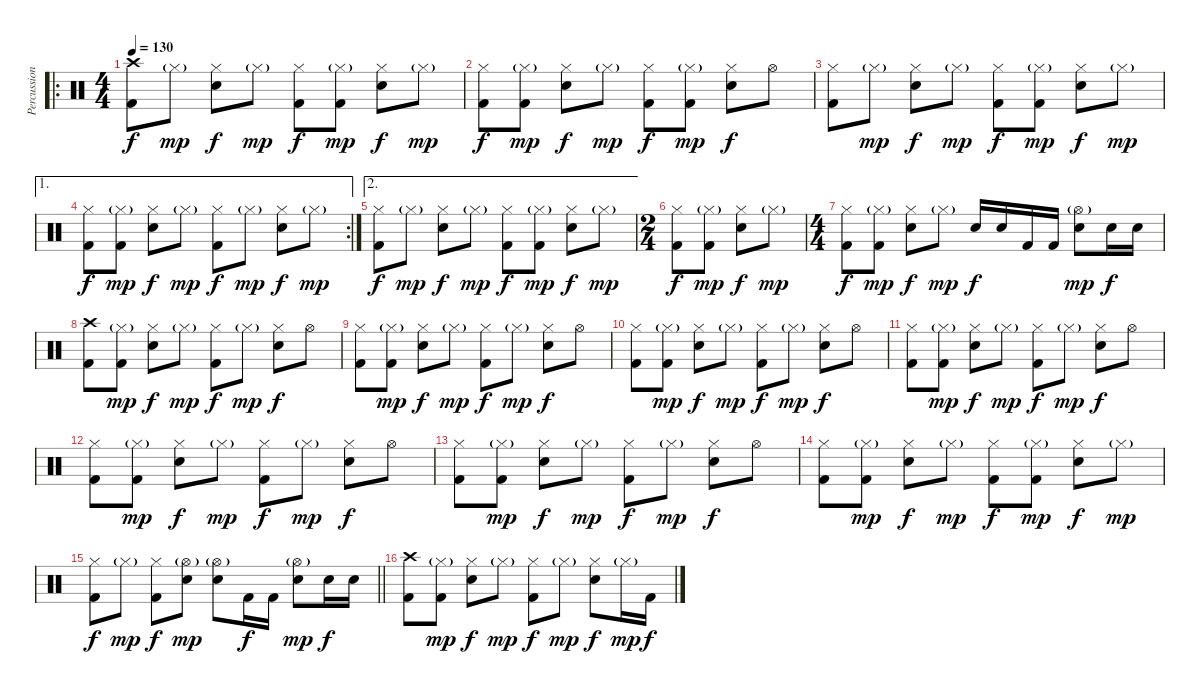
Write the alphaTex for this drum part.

\track ("Percussion" "Percussion") {instrument percussion}
\staff {score}
\articulation defaults
\ro
\ts (4 4)
\tempo 130
\clef neutral
\ks c
("Crash high (hit)" "Kick (hit) 2").8{dy f} "Hi-Hat (closed)"{g}.8{dy mp} ("Hi-Hat (closed)" "Electric Snare (hit)").8{dy f} "Hi-Hat (closed)"{g}.8{dy mp} ("Hi-Hat (closed)" "Kick (hit) 2").8{dy f} ("Hi-Hat (closed)"{g} "Kick (hit) 2").8{dy mp} ("Hi-Hat (closed)" "Electric Snare (hit)").8{dy f} "Hi-Hat (closed)"{g}.8{dy mp} |
("Hi-Hat (closed)" "Kick (hit) 2").8{dy f} ("Hi-Hat (closed)"{g} "Kick (hit) 2").8{dy mp} ("Hi-Hat (closed)" "Electric Snare (hit)").8{dy f} "Hi-Hat (closed)"{g}.8{dy mp} ("Hi-Hat (closed)" "Kick (hit) 2").8{dy f} ("Hi-Hat (closed)"{g} "Kick (hit) 2").8{dy mp} ("Hi-Hat (closed)" "Electric Snare (hit)").8{dy f} "Hi-Hat (open)".8 |
("Hi-Hat (closed)" "Kick (hit) 2").8 "Hi-Hat (closed)"{g}.8{dy mp} ("Hi-Hat (closed)" "Electric Snare (hit)").8{dy f} "Hi-Hat (closed)"{g}.8{dy mp} ("Hi-Hat (closed)" "Kick (hit) 2").8{dy f} ("Hi-Hat (closed)"{g} "Kick (hit) 2").8{dy mp} ("Hi-Hat (closed)" "Electric Snare (hit)").8{dy f} "Hi-Hat (closed)"{g}.8{dy mp} |
\ae 1
\rc 2
("Hi-Hat (closed)" "Kick (hit) 2").8{dy f} ("Hi-Hat (closed)"{g} "Kick (hit) 2").8{dy mp} ("Hi-Hat (closed)" "Electric Snare (hit)").8{dy f} "Hi-Hat (closed)"{g}.8{dy mp} ("Hi-Hat (closed)" "Kick (hit) 2").8{dy f} "Hi-Hat (closed)"{g}.8{dy mp} ("Hi-Hat (closed)" "Electric Snare (hit)").8{dy f} "Hi-Hat (closed)"{g}.8{dy mp} |
\ae 2
("Hi-Hat (closed)" "Kick (hit) 2").8{dy f} "Hi-Hat (closed)"{g}.8{dy mp} ("Hi-Hat (closed)" "Electric Snare (hit)").8{dy f} "Hi-Hat (closed)"{g}.8{dy mp} ("Hi-Hat (closed)" "Kick (hit) 2").8{dy f} ("Hi-Hat (closed)"{g} "Kick (hit) 2").8{dy mp} ("Hi-Hat (closed)" "Electric Snare (hit)").8{dy f} "Hi-Hat (closed)"{g}.8{dy mp} |
\ts (2 4)
("Hi-Hat (closed)" "Kick (hit) 2").8{dy f} ("Hi-Hat (closed)"{g} "Kick (hit) 2").8{dy mp} ("Hi-Hat (closed)" "Electric Snare (hit)").8{dy f} "Hi-Hat (closed)"{g}.8{dy mp} |
\ts (4 4)
("Hi-Hat (closed)" "Kick (hit) 2").8{dy f} ("Hi-Hat (closed)"{g} "Kick (hit) 2").8{dy mp} ("Hi-Hat (closed)" "Electric Snare (hit)").8{dy f} "Hi-Hat (closed)"{g}.8{dy mp} "Electric Snare (hit)".16{dy f} "Electric Snare (hit)".16 "Kick (hit) 2".16 "Kick (hit) 2".16 ("Hi-Hat (open)"{g} "Electric Snare (hit)").8{dy mp} "Electric Snare (hit)".16{dy f} "Electric Snare (hit)".16 |
("Crash high (hit)" "Kick (hit) 2").8 ("Hi-Hat (closed)"{g} "Kick (hit) 2").8{dy mp} ("Hi-Hat (closed)" "Electric Snare (hit)").8{dy f} "Hi-Hat (closed)"{g}.8{dy mp} ("Hi-Hat (closed)" "Kick (hit) 2").8{dy f} "Hi-Hat (closed)"{g}.8{dy mp} ("Hi-Hat (closed)" "Electric Snare (hit)").8{dy f} "Hi-Hat (open)".8 |
("Hi-Hat (closed)" "Kick (hit) 2").8 ("Hi-Hat (closed)"{g} "Kick (hit) 2").8{dy mp} ("Hi-Hat (closed)" "Electric Snare (hit)").8{dy f} "Hi-Hat (closed)"{g}.8{dy mp} ("Hi-Hat (closed)" "Kick (hit) 2").8{dy f} "Hi-Hat (closed)"{g}.8{dy mp} ("Hi-Hat (closed)" "Electric Snare (hit)").8{dy f} "Hi-Hat (open)".8 |
("Hi-Hat (closed)" "Kick (hit) 2").8 ("Hi-Hat (closed)"{g} "Kick (hit) 2").8{dy mp} ("Hi-Hat (closed)" "Electric Snare (hit)").8{dy f} "Hi-Hat (closed)"{g}.8{dy mp} ("Hi-Hat (closed)" "Kick (hit) 2").8{dy f} "Hi-Hat (closed)"{g}.8{dy mp} ("Hi-Hat (closed)" "Electric Snare (hit)").8{dy f} "Hi-Hat (open)".8 |
("Hi-Hat (closed)" "Kick (hit) 2").8 ("Hi-Hat (closed)"{g} "Kick (hit) 2").8{dy mp} ("Hi-Hat (closed)" "Electric Snare (hit)").8{dy f} "Hi-Hat (closed)"{g}.8{dy mp} ("Hi-Hat (closed)" "Kick (hit) 2").8{dy f} "Hi-Hat (closed)"{g}.8{dy mp} ("Hi-Hat (closed)" "Electric Snare (hit)").8{dy f} "Hi-Hat (open)".8 |
("Hi-Hat (closed)" "Kick (hit) 2").8 ("Hi-Hat (closed)"{g} "Kick (hit) 2").8{dy mp} ("Hi-Hat (closed)" "Electric Snare (hit)").8{dy f} "Hi-Hat (closed)"{g}.8{dy mp} ("Hi-Hat (closed)" "Kick (hit) 2").8{dy f} "Hi-Hat (closed)"{g}.8{dy mp} ("Hi-Hat (closed)" "Electric Snare (hit)").8{dy f} "Hi-Hat (open)".8 |
("Hi-Hat (closed)" "Kick (hit) 2").8 ("Hi-Hat (closed)"{g} "Kick (hit) 2").8{dy mp} ("Hi-Hat (closed)" "Electric Snare (hit)").8{dy f} "Hi-Hat (closed)"{g}.8{dy mp} ("Hi-Hat (closed)" "Kick (hit) 2").8{dy f} "Hi-Hat (closed)"{g}.8{dy mp} ("Hi-Hat (closed)" "Electric Snare (hit)").8{dy f} "Hi-Hat (open)".8 |
("Hi-Hat (closed)" "Kick (hit) 2").8 ("Hi-Hat (closed)"{g} "Kick (hit) 2").8{dy mp} ("Hi-Hat (closed)" "Electric Snare (hit)").8{dy f} "Hi-Hat (closed)"{g}.8{dy mp} ("Hi-Hat (closed)" "Kick (hit) 2").8{dy f} ("Hi-Hat (closed)"{g} "Kick (hit) 2").8{dy mp} ("Hi-Hat (closed)" "Electric Snare (hit)").8{dy f} "Hi-Hat (closed)"{g}.8{dy mp} |
\barLineRight lightlight
("Hi-Hat (closed)" "Kick (hit) 2").8{dy f} "Hi-Hat (closed)"{g}.8{dy mp} ("Hi-Hat (closed)" "Kick (hit) 2").8{dy f} ("Hi-Hat (open)"{g} "Electric Snare (hit)").8{dy mp} ("Hi-Hat (open)"{g} "Electric Snare (hit)").8 "Kick (hit) 2".16{dy f} "Kick (hit) 2".16 ("Hi-Hat (open)"{g} "Electric Snare (hit)").8{dy mp} "Electric Snare (hit)".16{dy f} "Electric Snare (hit)".16 |
("Crash high (hit)" "Kick (hit) 2").8 ("Hi-Hat (closed)"{g} "Kick (hit) 2").8{dy mp} ("Hi-Hat (closed)" "Electric Snare (hit)").8{dy f} "Hi-Hat (closed)"{g}.8{dy mp} ("Hi-Hat (closed)" "Kick (hit) 2").8{dy f} "Hi-Hat (closed)"{g}.8{dy mp} ("Hi-Hat (closed)" "Electric Snare (hit)").8{dy f} "Hi-Hat (closed)"{g}.16{dy mp} "Kick (hit) 2".16{dy f}
